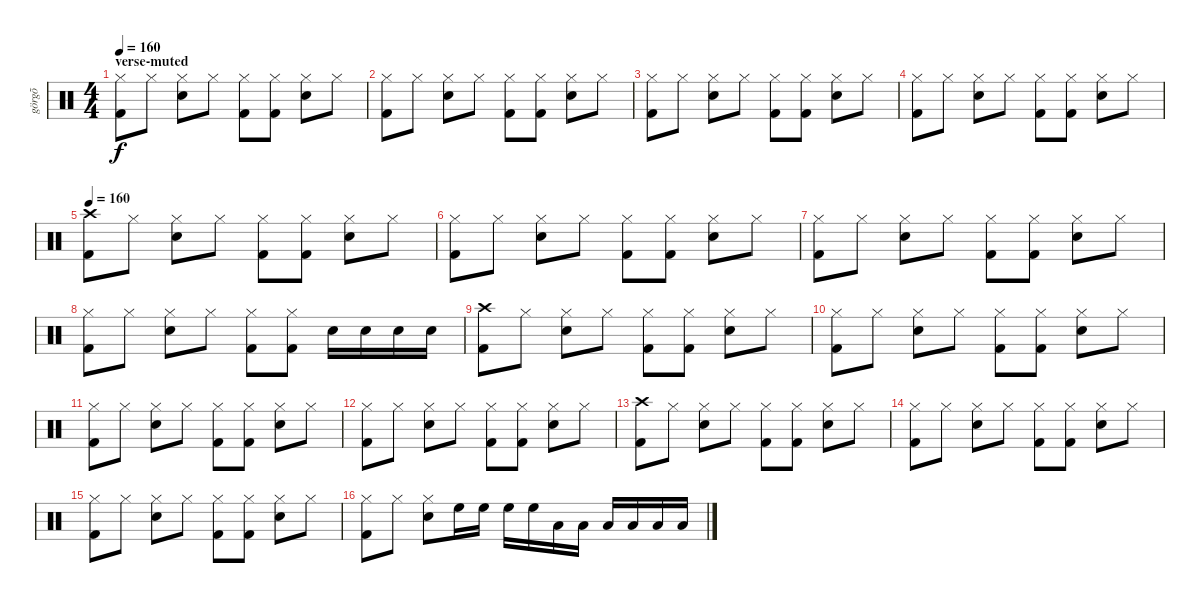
\track ("görgõ" "görgõ") {instrument percussion}
\staff {score}
\articulation defaults
\ts (4 4)
\section ("" "verse-muted")
\tempo 160
\clef neutral
\ks c
("Hi-Hat (closed)" "Kick (hit) 2").8{dy f} "Hi-Hat (closed)".8 ("Hi-Hat (closed)" "Snare (hit) 2").8 "Hi-Hat (closed)".8 ("Hi-Hat (closed)" "Kick (hit) 2").8 ("Hi-Hat (closed)" "Kick (hit) 2").8 ("Hi-Hat (closed)" "Snare (hit) 2").8 "Hi-Hat (closed)".8 |
("Hi-Hat (closed)" "Kick (hit) 2").8 "Hi-Hat (closed)".8 ("Hi-Hat (closed)" "Snare (hit) 2").8 "Hi-Hat (closed)".8 ("Hi-Hat (closed)" "Kick (hit) 2").8 ("Hi-Hat (closed)" "Kick (hit) 2").8 ("Hi-Hat (closed)" "Snare (hit) 2").8 "Hi-Hat (closed)".8 |
("Hi-Hat (closed)" "Kick (hit) 2").8 "Hi-Hat (closed)".8 ("Hi-Hat (closed)" "Snare (hit) 2").8 "Hi-Hat (closed)".8 ("Hi-Hat (closed)" "Kick (hit) 2").8 ("Hi-Hat (closed)" "Kick (hit) 2").8 ("Hi-Hat (closed)" "Snare (hit) 2").8 "Hi-Hat (closed)".8 |
("Hi-Hat (closed)" "Kick (hit) 2").8 "Hi-Hat (closed)".8 ("Hi-Hat (closed)" "Snare (hit) 2").8 "Hi-Hat (closed)".8 ("Hi-Hat (closed)" "Kick (hit) 2").8 ("Hi-Hat (closed)" "Kick (hit) 2").8 ("Hi-Hat (closed)" "Snare (hit) 2").8 "Hi-Hat (closed)".8 |
\tempo 160
("Crash high (hit)" "Kick (hit) 2").8 "Hi-Hat (closed)".8 ("Hi-Hat (closed)" "Snare (hit) 2").8 "Hi-Hat (closed)".8 ("Hi-Hat (closed)" "Kick (hit) 2").8 ("Hi-Hat (closed)" "Kick (hit) 2").8 ("Hi-Hat (closed)" "Snare (hit) 2").8 "Hi-Hat (closed)".8 |
("Hi-Hat (closed)" "Kick (hit) 2").8 "Hi-Hat (closed)".8 ("Hi-Hat (closed)" "Snare (hit) 2").8 "Hi-Hat (closed)".8 ("Hi-Hat (closed)" "Kick (hit) 2").8 ("Hi-Hat (closed)" "Kick (hit) 2").8 ("Hi-Hat (closed)" "Snare (hit) 2").8 "Hi-Hat (closed)".8 |
("Hi-Hat (closed)" "Kick (hit) 2").8 "Hi-Hat (closed)".8 ("Hi-Hat (closed)" "Snare (hit) 2").8 "Hi-Hat (closed)".8 ("Hi-Hat (closed)" "Kick (hit) 2").8 ("Hi-Hat (closed)" "Kick (hit) 2").8 ("Hi-Hat (closed)" "Snare (hit) 2").8 "Hi-Hat (closed)".8 |
("Hi-Hat (closed)" "Kick (hit) 2").8 "Hi-Hat (closed)".8 ("Hi-Hat (closed)" "Snare (hit) 2").8 "Hi-Hat (closed)".8 ("Hi-Hat (closed)" "Kick (hit) 2").8 ("Hi-Hat (closed)" "Kick (hit) 2").8 "Snare (hit) 2".16 "Snare (hit) 2".16 "Snare (hit) 2".16 "Snare (hit) 2".16 |
("Crash high (hit)" "Kick (hit) 2").8 "Hi-Hat (closed)".8 ("Hi-Hat (closed)" "Snare (hit) 2").8 "Hi-Hat (closed)".8 ("Hi-Hat (closed)" "Kick (hit) 2").8 ("Hi-Hat (closed)" "Kick (hit) 2").8 ("Hi-Hat (closed)" "Snare (hit) 2").8 "Hi-Hat (closed)".8 |
("Hi-Hat (closed)" "Kick (hit) 2").8 "Hi-Hat (closed)".8 ("Hi-Hat (closed)" "Snare (hit) 2").8 "Hi-Hat (closed)".8 ("Hi-Hat (closed)" "Kick (hit) 2").8 ("Hi-Hat (closed)" "Kick (hit) 2").8 ("Hi-Hat (closed)" "Snare (hit) 2").8 "Hi-Hat (closed)".8 |
("Hi-Hat (closed)" "Kick (hit) 2").8 "Hi-Hat (closed)".8 ("Hi-Hat (closed)" "Snare (hit) 2").8 "Hi-Hat (closed)".8 ("Hi-Hat (closed)" "Kick (hit) 2").8 ("Hi-Hat (closed)" "Kick (hit) 2").8 ("Hi-Hat (closed)" "Snare (hit) 2").8 "Hi-Hat (closed)".8 |
("Hi-Hat (closed)" "Kick (hit) 2").8 "Hi-Hat (closed)".8 ("Hi-Hat (closed)" "Snare (hit) 2").8 "Hi-Hat (closed)".8 ("Hi-Hat (closed)" "Kick (hit) 2").8 ("Hi-Hat (closed)" "Kick (hit) 2").8 ("Hi-Hat (closed)" "Snare (hit) 2").8 "Hi-Hat (closed)".8 |
("Crash high (hit)" "Kick (hit) 2").8 "Hi-Hat (closed)".8 ("Hi-Hat (closed)" "Snare (hit) 2").8 "Hi-Hat (closed)".8 ("Hi-Hat (closed)" "Kick (hit) 2").8 ("Hi-Hat (closed)" "Kick (hit) 2").8 ("Hi-Hat (closed)" "Snare (hit) 2").8 "Hi-Hat (closed)".8 |
("Hi-Hat (closed)" "Kick (hit) 2").8 "Hi-Hat (closed)".8 ("Hi-Hat (closed)" "Snare (hit) 2").8 "Hi-Hat (closed)".8 ("Hi-Hat (closed)" "Kick (hit) 2").8 ("Hi-Hat (closed)" "Kick (hit) 2").8 ("Hi-Hat (closed)" "Snare (hit) 2").8 "Hi-Hat (closed)".8 |
("Hi-Hat (closed)" "Kick (hit) 2").8 "Hi-Hat (closed)".8 ("Hi-Hat (closed)" "Snare (hit) 2").8 "Hi-Hat (closed)".8 ("Hi-Hat (closed)" "Kick (hit) 2").8 ("Hi-Hat (closed)" "Kick (hit) 2").8 ("Hi-Hat (closed)" "Snare (hit) 2").8 "Hi-Hat (closed)".8 |
("Hi-Hat (closed)" "Kick (hit) 2").8 "Hi-Hat (closed)".8 ("Hi-Hat (closed)" "Snare (hit) 2").8 "High Floor Tom (hit)".16 "High Floor Tom (hit)".16 "High Floor Tom (hit)".16 "High Floor Tom (hit)".16 "Low Tom (hit)".16 "Low Tom (hit)".16 "Low Tom (hit)".16 "Low Tom (hit)".16 "Low Tom (hit)".16 "Low Tom (hit)".16
